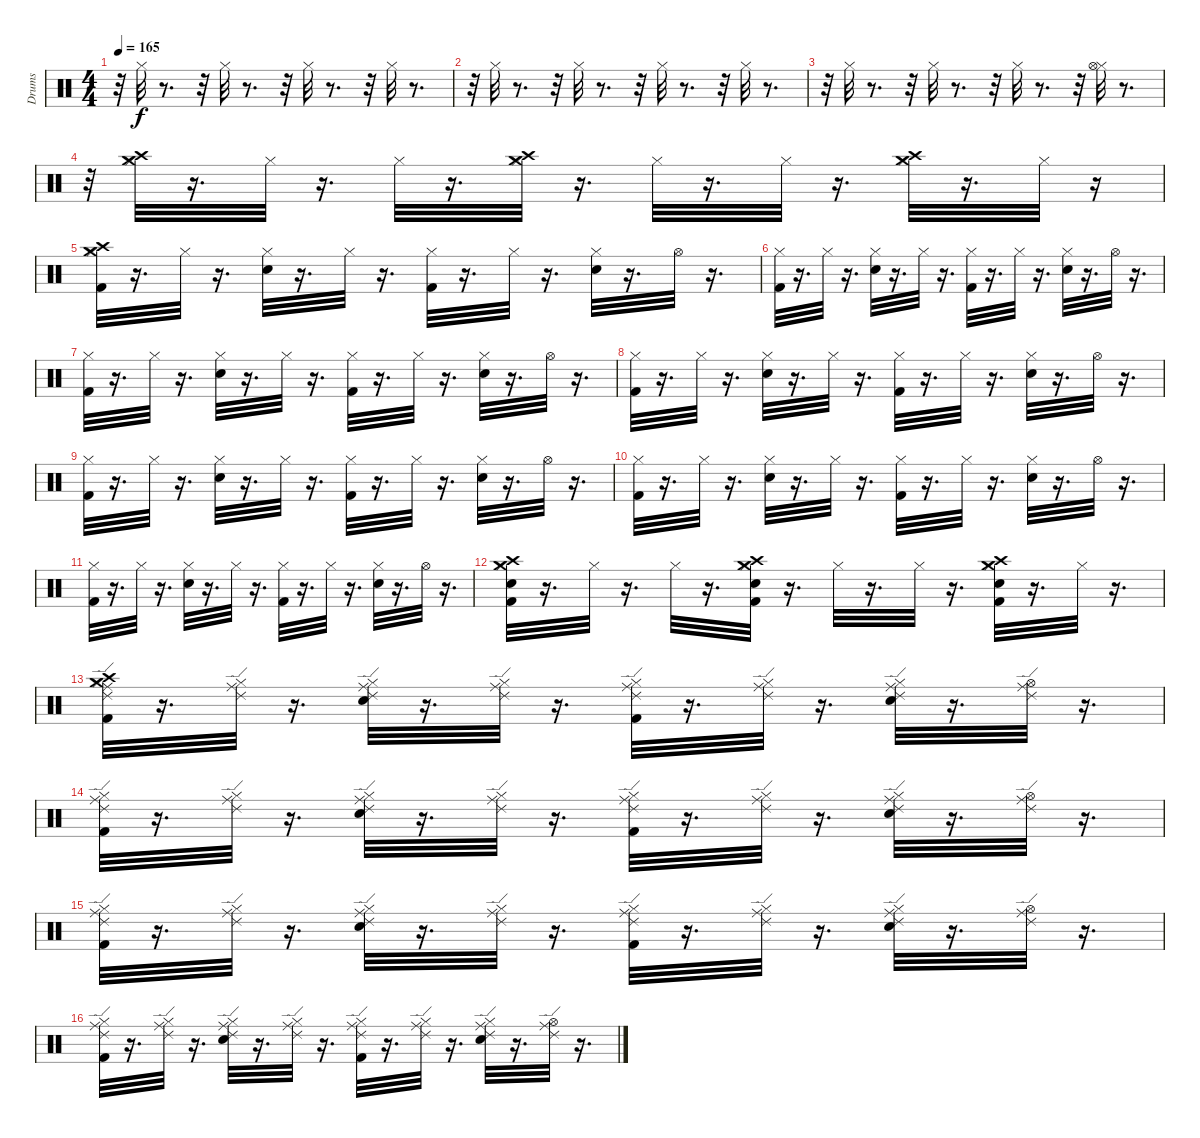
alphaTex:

\track ("Drums" "Drums") {instrument percussion}
\staff {score}
\articulation defaults
\ts (4 4)
\tempo 165
\clef neutral
\ks c
r.32{dy f} "Hi-Hat (closed)".32 r.8{d} r.32 "Hi-Hat (closed)".32 r.8{d} r.32 "Hi-Hat (closed)".32 r.8{d} r.32 "Hi-Hat (closed)".32 r.8{d} |
r.32 "Hi-Hat (closed)".32 r.8{d} r.32 "Hi-Hat (closed)".32 r.8{d} r.32 "Hi-Hat (closed)".32 r.8{d} r.32 "Hi-Hat (closed)".32 r.8{d} |
r.32 "Hi-Hat (closed)".32 r.8{d} r.32 "Hi-Hat (closed)".32 r.8{d} r.32 "Hi-Hat (closed)".32 r.8{d} r.32 ("Hi-Hat (closed)" "Hi-Hat (open)").32 r.8{d} |
r.32 ("Hi-Hat (closed)" "Crash medium (hit)" "Crash high (hit)").32 r.16{d} "Hi-Hat (closed)".32 r.16{d} "Hi-Hat (closed)".32 r.16{d} ("Hi-Hat (closed)" "Crash medium (hit)" "Crash high (hit)").32 r.16{d} "Hi-Hat (closed)".32 r.16{d} "Hi-Hat (closed)".32 r.16{d} ("Hi-Hat (closed)" "Crash high (hit)" "Crash medium (hit)").32 r.16{d} "Hi-Hat (closed)".32 r.16 |
("Kick (hit) 2" "Hi-Hat (closed)" "Crash high (hit)" "Crash medium (hit)").32 r.16{d} "Hi-Hat (closed)".32 r.16{d} ("Hi-Hat (closed)" "Electric Snare (hit)").32 r.16{d} "Hi-Hat (closed)".32 r.16{d} ("Kick (hit) 2" "Hi-Hat (closed)").32 r.16{d} "Hi-Hat (closed)".32 r.16{d} ("Electric Snare (hit)" "Hi-Hat (closed)").32 r.16{d} "Hi-Hat (open)".32 r.16{d} |
("Kick (hit) 2" "Hi-Hat (closed)").32 r.16{d} "Hi-Hat (closed)".32 r.16{d} ("Hi-Hat (closed)" "Electric Snare (hit)").32 r.16{d} "Hi-Hat (closed)".32 r.16{d} ("Kick (hit) 2" "Hi-Hat (closed)").32 r.16{d} "Hi-Hat (closed)".32 r.16{d} ("Electric Snare (hit)" "Hi-Hat (closed)").32 r.16{d} "Hi-Hat (open)".32 r.16{d} |
("Kick (hit) 2" "Hi-Hat (closed)").32 r.16{d} "Hi-Hat (closed)".32 r.16{d} ("Hi-Hat (closed)" "Electric Snare (hit)").32 r.16{d} "Hi-Hat (closed)".32 r.16{d} ("Kick (hit) 2" "Hi-Hat (closed)").32 r.16{d} "Hi-Hat (closed)".32 r.16{d} ("Electric Snare (hit)" "Hi-Hat (closed)").32 r.16{d} "Hi-Hat (open)".32 r.16{d} |
("Kick (hit) 2" "Hi-Hat (closed)").32 r.16{d} "Hi-Hat (closed)".32 r.16{d} ("Hi-Hat (closed)" "Electric Snare (hit)").32 r.16{d} "Hi-Hat (closed)".32 r.16{d} ("Kick (hit) 2" "Hi-Hat (closed)").32 r.16{d} "Hi-Hat (closed)".32 r.16{d} ("Electric Snare (hit)" "Hi-Hat (closed)").32 r.16{d} "Hi-Hat (open)".32 r.16{d} |
("Kick (hit) 2" "Hi-Hat (closed)").32 r.16{d} "Hi-Hat (closed)".32 r.16{d} ("Hi-Hat (closed)" "Electric Snare (hit)").32 r.16{d} "Hi-Hat (closed)".32 r.16{d} ("Kick (hit) 2" "Hi-Hat (closed)").32 r.16{d} "Hi-Hat (closed)".32 r.16{d} ("Electric Snare (hit)" "Hi-Hat (closed)").32 r.16{d} "Hi-Hat (open)".32 r.16{d} |
("Kick (hit) 2" "Hi-Hat (closed)").32 r.16{d} "Hi-Hat (closed)".32 r.16{d} ("Hi-Hat (closed)" "Electric Snare (hit)").32 r.16{d} "Hi-Hat (closed)".32 r.16{d} ("Kick (hit) 2" "Hi-Hat (closed)").32 r.16{d} "Hi-Hat (closed)".32 r.16{d} ("Electric Snare (hit)" "Hi-Hat (closed)").32 r.16{d} "Hi-Hat (open)".32 r.16{d} |
("Kick (hit) 2" "Hi-Hat (closed)").32 r.16{d} "Hi-Hat (closed)".32 r.16{d} ("Hi-Hat (closed)" "Electric Snare (hit)").32 r.16{d} "Hi-Hat (closed)".32 r.16{d} ("Kick (hit) 2" "Hi-Hat (closed)").32 r.16{d} "Hi-Hat (closed)".32 r.16{d} ("Electric Snare (hit)" "Hi-Hat (closed)").32 r.16{d} "Hi-Hat (open)".32 r.16{d} |
("Kick (hit) 2" "Electric Snare (hit)" "Crash medium (hit)" "Crash high (hit)" "Hi-Hat (closed)").32 r.16{d} "Hi-Hat (closed)".32 r.16{d} "Hi-Hat (closed)".32 r.16{d} ("Electric Snare (hit)" "Crash high (hit)" "Crash medium (hit)" "Hi-Hat (closed)" "Kick (hit) 2").32 r.16{d} "Hi-Hat (closed)".32 r.16{d} "Hi-Hat (closed)".32 r.16{d} ("Kick (hit) 2" "Electric Snare (hit)" "Crash high (hit)" "Crash medium (hit)" "Hi-Hat (closed)").32 r.16{d} "Hi-Hat (closed)".32 r.16{d} |
("Ride (edge) 2" "Ride (middle)" "Kick (hit) 2" "Hi-Hat (closed)" "Crash high (hit)" "Crash medium (hit)").32 r.16{d} ("Ride (edge) 2" "Ride (middle)" "Hi-Hat (closed)").32 r.16{d} ("Ride (edge) 2" "Ride (middle)" "Hi-Hat (closed)" "Electric Snare (hit)").32 r.16{d} ("Ride (edge) 2" "Ride (middle)" "Hi-Hat (closed)").32 r.16{d} ("Ride (edge) 2" "Ride (middle)" "Kick (hit) 2" "Hi-Hat (closed)").32 r.16{d} ("Ride (edge) 2" "Ride (middle)" "Hi-Hat (closed)").32 r.16{d} ("Ride (edge) 2" "Ride (middle)" "Electric Snare (hit)" "Hi-Hat (closed)").32 r.16{d} ("Ride (edge) 2" "Ride (middle)" "Hi-Hat (open)").32 r.16{d} |
("Ride (edge) 2" "Ride (middle)" "Kick (hit) 2" "Hi-Hat (closed)").32 r.16{d} ("Ride (edge) 2" "Ride (middle)" "Hi-Hat (closed)").32 r.16{d} ("Ride (edge) 2" "Ride (middle)" "Hi-Hat (closed)" "Electric Snare (hit)").32 r.16{d} ("Ride (edge) 2" "Hi-Hat (closed)" "Ride (middle)").32 r.16{d} ("Ride (middle)" "Ride (edge) 2" "Kick (hit) 2" "Hi-Hat (closed)").32 r.16{d} ("Ride (middle)" "Ride (edge) 2" "Hi-Hat (closed)").32 r.16{d} ("Ride (middle)" "Ride (edge) 2" "Electric Snare (hit)" "Hi-Hat (closed)").32 r.16{d} ("Ride (middle)" "Ride (edge) 2" "Hi-Hat (open)").32 r.16{d} |
("Kick (hit) 2" "Hi-Hat (closed)" "Ride (edge) 2" "Ride (middle)").32 r.16{d} ("Hi-Hat (closed)" "Ride (edge) 2" "Ride (middle)").32 r.16{d} ("Ride (edge) 2" "Ride (middle)" "Hi-Hat (closed)" "Electric Snare (hit)").32 r.16{d} ("Ride (edge) 2" "Hi-Hat (closed)" "Ride (middle)").32 r.16{d} ("Kick (hit) 2" "Ride (edge) 2" "Ride (middle)" "Hi-Hat (closed)").32 r.16{d} ("Hi-Hat (closed)" "Ride (edge) 2" "Ride (middle)").32 r.16{d} ("Electric Snare (hit)" "Ride (edge) 2" "Ride (middle)" "Hi-Hat (closed)").32 r.16{d} ("Hi-Hat (open)" "Ride (middle)" "Ride (edge) 2").32 r.16{d} |
("Hi-Hat (closed)" "Kick (hit) 2" "Ride (edge) 2" "Ride (middle)").32 r.16{d} ("Ride (middle)" "Hi-Hat (closed)" "Ride (edge) 2").32 r.16{d} ("Electric Snare (hit)" "Hi-Hat (closed)" "Ride (edge) 2" "Ride (middle)").32 r.16{d} ("Ride (edge) 2" "Ride (middle)" "Hi-Hat (closed)").32 r.16{d} ("Ride (middle)" "Kick (hit) 2" "Hi-Hat (closed)" "Ride (edge) 2").32 r.16{d} ("Ride (middle)" "Ride (edge) 2" "Hi-Hat (closed)").32 r.16{d} ("Electric Snare (hit)" "Hi-Hat (closed)" "Ride (middle)" "Ride (edge) 2").32 r.16{d} ("Hi-Hat (open)" "Ride (middle)" "Ride (edge) 2").32 r.16{d}
